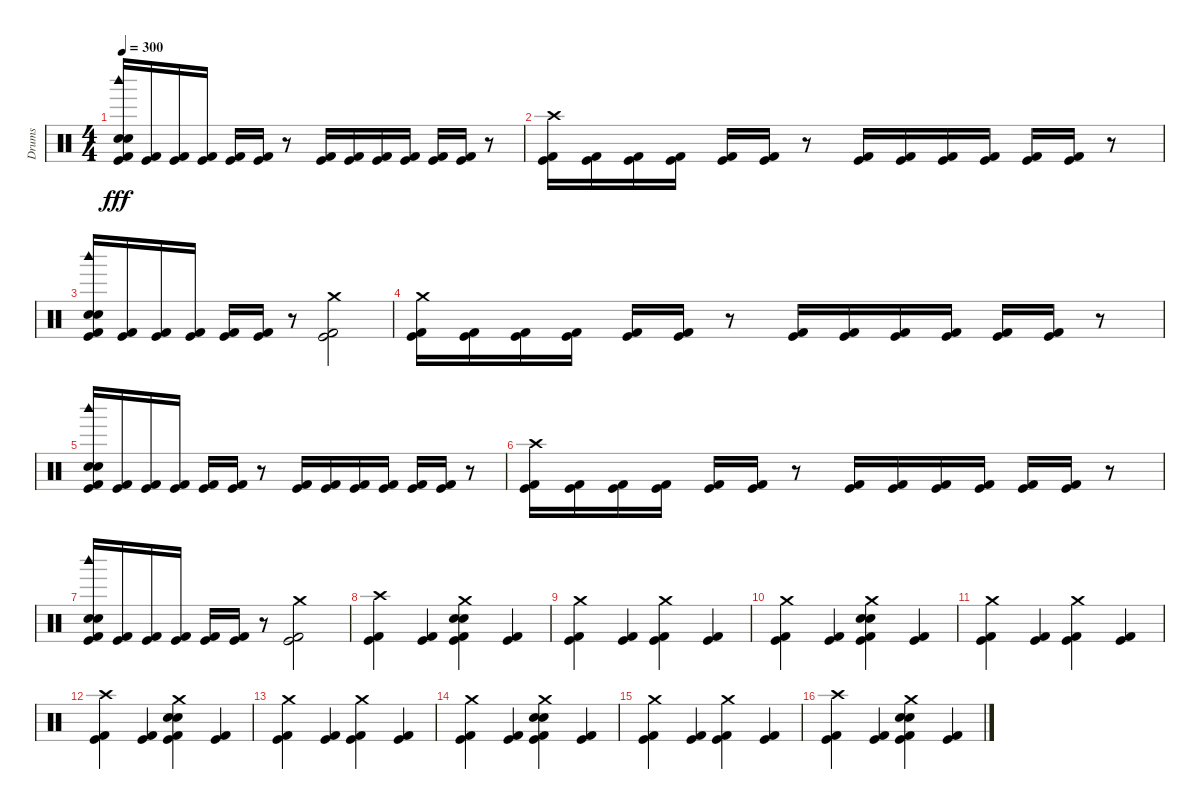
\track ("Drums" "Drums") {instrument percussion}
\staff {score}
\articulation defaults
\ts (4 4)
\tempo 300
\clef neutral
\ks c
("Kick (hit)" "Electric Snare (hit)" "Snare (hit) 2" "Woodblock high (hit)" "Kick (hit) 2").16{dy fff} ("Kick (hit)" "Kick (hit) 2").16 ("Kick (hit)" "Kick (hit) 2").16 ("Kick (hit)" "Kick (hit) 2").16 ("Kick (hit)" "Kick (hit) 2").16 ("Kick (hit)" "Kick (hit) 2").16 r.8 ("Kick (hit)" "Kick (hit) 2").16 ("Kick (hit)" "Kick (hit) 2").16 ("Kick (hit)" "Kick (hit) 2").16 ("Kick (hit)" "Kick (hit) 2").16 ("Kick (hit)" "Kick (hit) 2").16 ("Kick (hit)" "Kick (hit) 2").16 r.8 |
("Kick (hit)" "Crash high (hit)" "Kick (hit) 2").16 ("Kick (hit)" "Kick (hit) 2").16 ("Kick (hit)" "Kick (hit) 2").16 ("Kick (hit)" "Kick (hit) 2").16 ("Kick (hit)" "Kick (hit) 2").16 ("Kick (hit)" "Kick (hit) 2").16 r.8 ("Kick (hit)" "Kick (hit) 2").16 ("Kick (hit)" "Kick (hit) 2").16 ("Kick (hit)" "Kick (hit) 2").16 ("Kick (hit)" "Kick (hit) 2").16 ("Kick (hit)" "Kick (hit) 2").16 ("Kick (hit)" "Kick (hit) 2").16 r.8 |
("Kick (hit)" "Electric Snare (hit)" "Snare (hit) 2" "Woodblock high (hit)" "Kick (hit) 2").16 ("Kick (hit)" "Kick (hit) 2").16 ("Kick (hit)" "Kick (hit) 2").16 ("Kick (hit)" "Kick (hit) 2").16 ("Kick (hit)" "Kick (hit) 2").16 ("Kick (hit)" "Kick (hit) 2").16 r.8 ("Kick (hit) 2" "Crash medium (hit)" "Kick (hit)").2 |
("Kick (hit) 2" "Crash medium (hit)" "Kick (hit)").16 ("Kick (hit) 2" "Kick (hit)").16 ("Kick (hit) 2" "Kick (hit)").16 ("Kick (hit) 2" "Kick (hit)").16 ("Kick (hit) 2" "Kick (hit)").16 ("Kick (hit) 2" "Kick (hit)").16 r.8 ("Kick (hit)" "Kick (hit) 2").16 ("Kick (hit)" "Kick (hit) 2").16 ("Kick (hit)" "Kick (hit) 2").16 ("Kick (hit)" "Kick (hit) 2").16 ("Kick (hit)" "Kick (hit) 2").16 ("Kick (hit)" "Kick (hit) 2").16 r.8 |
("Kick (hit)" "Electric Snare (hit)" "Snare (hit) 2" "Woodblock high (hit)" "Kick (hit) 2").16 ("Kick (hit)" "Kick (hit) 2").16 ("Kick (hit)" "Kick (hit) 2").16 ("Kick (hit)" "Kick (hit) 2").16 ("Kick (hit)" "Kick (hit) 2").16 ("Kick (hit)" "Kick (hit) 2").16 r.8 ("Kick (hit)" "Kick (hit) 2").16 ("Kick (hit)" "Kick (hit) 2").16 ("Kick (hit)" "Kick (hit) 2").16 ("Kick (hit)" "Kick (hit) 2").16 ("Kick (hit)" "Kick (hit) 2").16 ("Kick (hit)" "Kick (hit) 2").16 r.8 |
("Kick (hit)" "Crash high (hit)" "Kick (hit) 2").16 ("Kick (hit)" "Kick (hit) 2").16 ("Kick (hit)" "Kick (hit) 2").16 ("Kick (hit)" "Kick (hit) 2").16 ("Kick (hit)" "Kick (hit) 2").16 ("Kick (hit)" "Kick (hit) 2").16 r.8 ("Kick (hit)" "Kick (hit) 2").16 ("Kick (hit)" "Kick (hit) 2").16 ("Kick (hit)" "Kick (hit) 2").16 ("Kick (hit)" "Kick (hit) 2").16 ("Kick (hit)" "Kick (hit) 2").16 ("Kick (hit)" "Kick (hit) 2").16 r.8 |
("Kick (hit)" "Electric Snare (hit)" "Snare (hit) 2" "Woodblock high (hit)" "Kick (hit) 2").16 ("Kick (hit)" "Kick (hit) 2").16 ("Kick (hit)" "Kick (hit) 2").16 ("Kick (hit)" "Kick (hit) 2").16 ("Kick (hit)" "Kick (hit) 2").16 ("Kick (hit)" "Kick (hit) 2").16 r.8 ("Kick (hit) 2" "Crash medium (hit)" "Kick (hit)").2 |
("Kick (hit) 2" "Crash high (hit)" "Kick (hit)").4 ("Kick (hit) 2" "Kick (hit)").4 ("Kick (hit) 2" "Crash medium (hit)" "Electric Snare (hit)" "Snare (hit) 2" "Kick (hit)").4 ("Kick (hit) 2" "Kick (hit)").4 |
("Kick (hit) 2" "Kick (hit)" "Crash medium (hit)").4 ("Kick (hit) 2" "Kick (hit)").4 ("Kick (hit) 2" "Kick (hit)" "Crash medium (hit)").4 ("Kick (hit) 2" "Kick (hit)").4 |
("Kick (hit) 2" "Crash medium (hit)" "Kick (hit)").4 ("Kick (hit) 2" "Kick (hit)").4 ("Kick (hit) 2" "Electric Snare (hit)" "Snare (hit) 2" "Crash medium (hit)" "Kick (hit)").4 ("Kick (hit) 2" "Kick (hit)").4 |
("Kick (hit) 2" "Kick (hit)" "Crash medium (hit)").4 ("Kick (hit) 2" "Kick (hit)").4 ("Kick (hit) 2" "Kick (hit)" "Crash medium (hit)").4 ("Kick (hit) 2" "Kick (hit)").4 |
("Kick (hit) 2" "Crash high (hit)" "Kick (hit)").4 ("Kick (hit) 2" "Kick (hit)").4 ("Kick (hit) 2" "Electric Snare (hit)" "Crash medium (hit)" "Snare (hit) 2" "Kick (hit)").4 ("Kick (hit) 2" "Kick (hit)").4 |
("Kick (hit) 2" "Crash medium (hit)" "Kick (hit)").4 ("Kick (hit) 2" "Kick (hit)").4 ("Kick (hit) 2" "Crash medium (hit)" "Kick (hit)").4 ("Kick (hit) 2" "Kick (hit)").4 |
("Kick (hit) 2" "Kick (hit)" "Crash medium (hit)").4 ("Kick (hit) 2" "Kick (hit)").4 ("Kick (hit) 2" "Snare (hit) 2" "Electric Snare (hit)" "Crash medium (hit)" "Kick (hit)").4 ("Kick (hit) 2" "Kick (hit)").4 |
("Kick (hit) 2" "Crash medium (hit)" "Kick (hit)").4 ("Kick (hit) 2" "Kick (hit)").4 ("Kick (hit) 2" "Kick (hit)" "Crash medium (hit)").4 ("Kick (hit) 2" "Kick (hit)").4 |
("Kick (hit) 2" "Crash high (hit)" "Kick (hit)").4 ("Kick (hit) 2" "Kick (hit)").4 ("Kick (hit) 2" "Crash medium (hit)" "Electric Snare (hit)" "Snare (hit) 2" "Kick (hit)").4 ("Kick (hit) 2" "Kick (hit)").4
